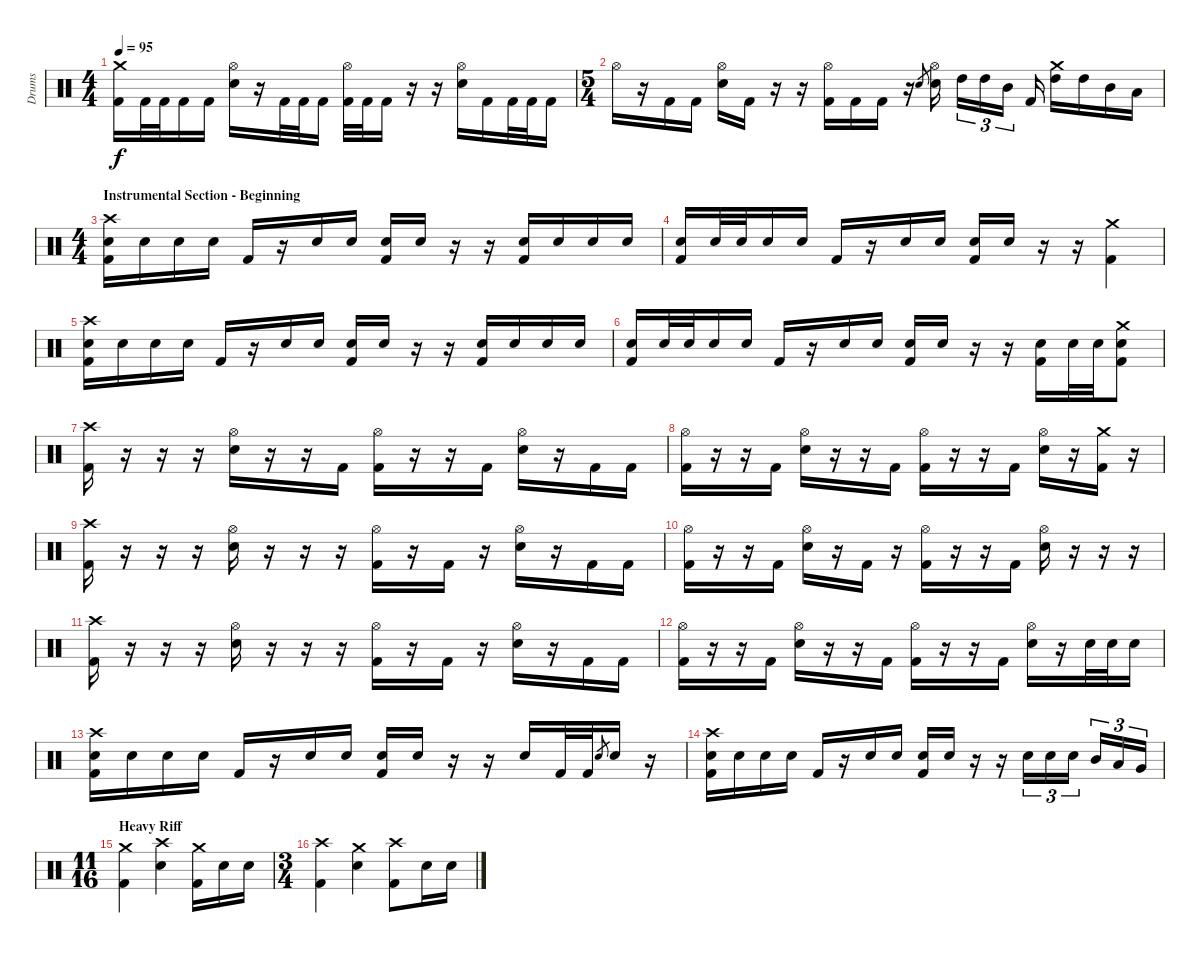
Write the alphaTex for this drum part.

\track ("Drums" "Drums") {instrument percussion}
\staff {score}
\articulation defaults
\ts (4 4)
\tempo 95
\clef neutral
\ks c
("Crash medium (hit)" "Kick (hit) 2").16{dy f} "Kick (hit) 2".32 "Kick (hit) 2".32 "Kick (hit) 2".16 "Kick (hit) 2".16 ("Hi-Hat (open)" "Snare (hit) 2").16 r.16 "Kick (hit) 2".32 "Kick (hit) 2".32 "Kick (hit) 2".16 ("Hi-Hat (open)" "Kick (hit) 2").32 "Kick (hit) 2".32 "Kick (hit) 2".16 r.16 r.16 ("Hi-Hat (open)" "Snare (hit) 2").16 "Kick (hit) 2".16 "Kick (hit) 2".32 "Kick (hit) 2".32 "Kick (hit) 2".16 |
\ts (5 4)
"Hi-Hat (open)".16 r.16 "Kick (hit) 2".16 "Kick (hit) 2".16 ("Hi-Hat (open)" "Snare (hit) 2").16 "Kick (hit) 2".16 r.16 r.16 ("Hi-Hat (open)" "Kick (hit) 2").16 "Kick (hit) 2".16 "Kick (hit) 2".16 r.16 "Snare (hit) 2".8{gr} ("Hi-Hat (open)" "Snare (hit) 2").16 "High Tom (hit)".16{tu (3 2)} "High Tom (hit)".16{tu (3 2)} "Mid Tom (hit)".16{tu (3 2)} "Kick (hit) 2".16 ("Crash medium (hit)" "High Tom (hit)").16 "High Tom (hit)".16 "Mid Tom (hit)".16 "Low Tom (hit)".16 |
\ts (4 4)
\section ("" "Instrumental Section - Beginning")
("Crash high (hit)" "Snare (hit) 2" "Kick (hit) 2").16 "Snare (hit) 2".16 "Snare (hit) 2".16 "Snare (hit) 2".16 "Kick (hit) 2".16 r.16 "Snare (hit) 2".16 "Snare (hit) 2".16 ("Snare (hit) 2" "Kick (hit) 2").16 "Snare (hit) 2".16 r.16 r.16 ("Snare (hit) 2" "Kick (hit) 2").16 "Snare (hit) 2".16 "Snare (hit) 2".16 "Snare (hit) 2".16 |
("Snare (hit) 2" "Kick (hit) 2").16 "Snare (hit) 2".32 "Snare (hit) 2".32 "Snare (hit) 2".16 "Snare (hit) 2".16 "Kick (hit) 2".16 r.16 "Snare (hit) 2".16 "Snare (hit) 2".16 ("Snare (hit) 2" "Kick (hit) 2").16 "Snare (hit) 2".16 r.16 r.16 ("Crash medium (hit)" "Kick (hit) 2").4 |
("Crash high (hit)" "Snare (hit) 2" "Kick (hit) 2").16 "Snare (hit) 2".16 "Snare (hit) 2".16 "Snare (hit) 2".16 "Kick (hit) 2".16 r.16 "Snare (hit) 2".16 "Snare (hit) 2".16 ("Snare (hit) 2" "Kick (hit) 2").16 "Snare (hit) 2".16 r.16 r.16 ("Snare (hit) 2" "Kick (hit) 2").16 "Snare (hit) 2".16 "Snare (hit) 2".16 "Snare (hit) 2".16 |
("Snare (hit) 2" "Kick (hit) 2").16 "Snare (hit) 2".32 "Snare (hit) 2".32 "Snare (hit) 2".16 "Snare (hit) 2".16 "Kick (hit) 2".16 r.16 "Snare (hit) 2".16 "Snare (hit) 2".16 ("Snare (hit) 2" "Kick (hit) 2").16 "Snare (hit) 2".16 r.16 r.16 ("Snare (hit) 2" "Kick (hit) 2").16 "Snare (hit) 2".32 "Snare (hit) 2".32 ("Crash medium (hit)" "Snare (hit) 2" "Kick (hit) 2").8 |
("Crash high (hit)" "Kick (hit) 2").16 r.16 r.16 r.16 ("Hi-Hat (open)" "Snare (hit) 2").16 r.16 r.16 "Kick (hit) 2".16 ("Hi-Hat (open)" "Kick (hit) 2").16 r.16 r.16 "Kick (hit) 2".16 ("Hi-Hat (open)" "Snare (hit) 2").16 r.16 "Kick (hit) 2".16 "Kick (hit) 2".16 |
("Hi-Hat (open)" "Kick (hit) 2").16 r.16 r.16 "Kick (hit) 2".16 ("Hi-Hat (open)" "Snare (hit) 2").16 r.16 r.16 "Kick (hit) 2".16 ("Hi-Hat (open)" "Kick (hit) 2").16 r.16 r.16 "Kick (hit) 2".16 ("Hi-Hat (open)" "Snare (hit) 2").16 r.16 ("Crash medium (hit)" "Kick (hit) 2").16 r.16 |
("Crash high (hit)" "Kick (hit) 2").16 r.16 r.16 r.16 ("Hi-Hat (open)" "Snare (hit) 2").16 r.16 r.16 r.16 ("Hi-Hat (open)" "Kick (hit) 2").16 r.16 "Kick (hit) 2".16 r.16 ("Hi-Hat (open)" "Snare (hit) 2").16 r.16 "Kick (hit) 2".16 "Kick (hit) 2".16 |
("Hi-Hat (open)" "Kick (hit) 2").16 r.16 r.16 "Kick (hit) 2".16 ("Hi-Hat (open)" "Snare (hit) 2").16 r.16 "Kick (hit) 2".16 r.16 ("Hi-Hat (open)" "Kick (hit) 2").16 r.16 r.16 "Kick (hit) 2".16 ("Hi-Hat (open)" "Snare (hit) 2").16 r.16 r.16 r.16 |
("Crash high (hit)" "Kick (hit) 2").16 r.16 r.16 r.16 ("Hi-Hat (open)" "Snare (hit) 2").16 r.16 r.16 r.16 ("Hi-Hat (open)" "Kick (hit) 2").16 r.16 "Kick (hit) 2".16 r.16 ("Hi-Hat (open)" "Snare (hit) 2").16 r.16 "Kick (hit) 2".16 "Kick (hit) 2".16 |
("Hi-Hat (open)" "Kick (hit) 2").16 r.16 r.16 "Kick (hit) 2".16 ("Hi-Hat (open)" "Snare (hit) 2").16 r.16 r.16 "Kick (hit) 2".16 ("Hi-Hat (open)" "Kick (hit) 2").16 r.16 r.16 "Kick (hit) 2".16 ("Hi-Hat (open)" "Snare (hit) 2").16 r.16 "Snare (hit) 2".32 "Snare (hit) 2".32 "Snare (hit) 2".16 |
("Crash high (hit)" "Snare (hit) 2" "Kick (hit) 2").16 "Snare (hit) 2".16 "Snare (hit) 2".16 "Snare (hit) 2".16 "Kick (hit) 2".16 r.16 "Snare (hit) 2".16 "Snare (hit) 2".16 ("Snare (hit) 2" "Kick (hit) 2").16 "Snare (hit) 2".16 r.16 r.16 "Snare (hit) 2".16 "Kick (hit) 2".32 "Kick (hit) 2".32 "Snare (hit) 2".8{gr} "Snare (hit) 2".16 r.16 |
("Crash high (hit)" "Snare (hit) 2" "Kick (hit) 2").16 "Snare (hit) 2".16 "Snare (hit) 2".16 "Snare (hit) 2".16 "Kick (hit) 2".16 r.16 "Snare (hit) 2".16 "Snare (hit) 2".16 ("Snare (hit) 2" "Kick (hit) 2").16 "Snare (hit) 2".16 r.16 r.16 "Snare (hit) 2".16{tu (3 2)} "Snare (hit) 2".16{tu (3 2)} "Snare (hit) 2".16{tu (3 2)} "Mid Tom (hit)".16{tu (3 2)} "Low Tom (hit)".16{tu (3 2)} "Very Low Tom (hit)".16{tu (3 2)} |
\ts (11 16)
\section ("" "Heavy Riff")
("Crash medium (hit)" "Kick (hit) 2").4 ("Crash high (hit)" "Snare (hit) 2").4 ("Crash medium (hit)" "Kick (hit) 2").16 "Snare (hit) 2".16 "Snare (hit) 2".16 |
\ts (3 4)
("Crash high (hit)" "Kick (hit) 2").4 ("Crash medium (hit)" "Snare (hit) 2").4 ("Crash high (hit)" "Kick (hit) 2").8 "Snare (hit) 2".16 "Snare (hit) 2".16
